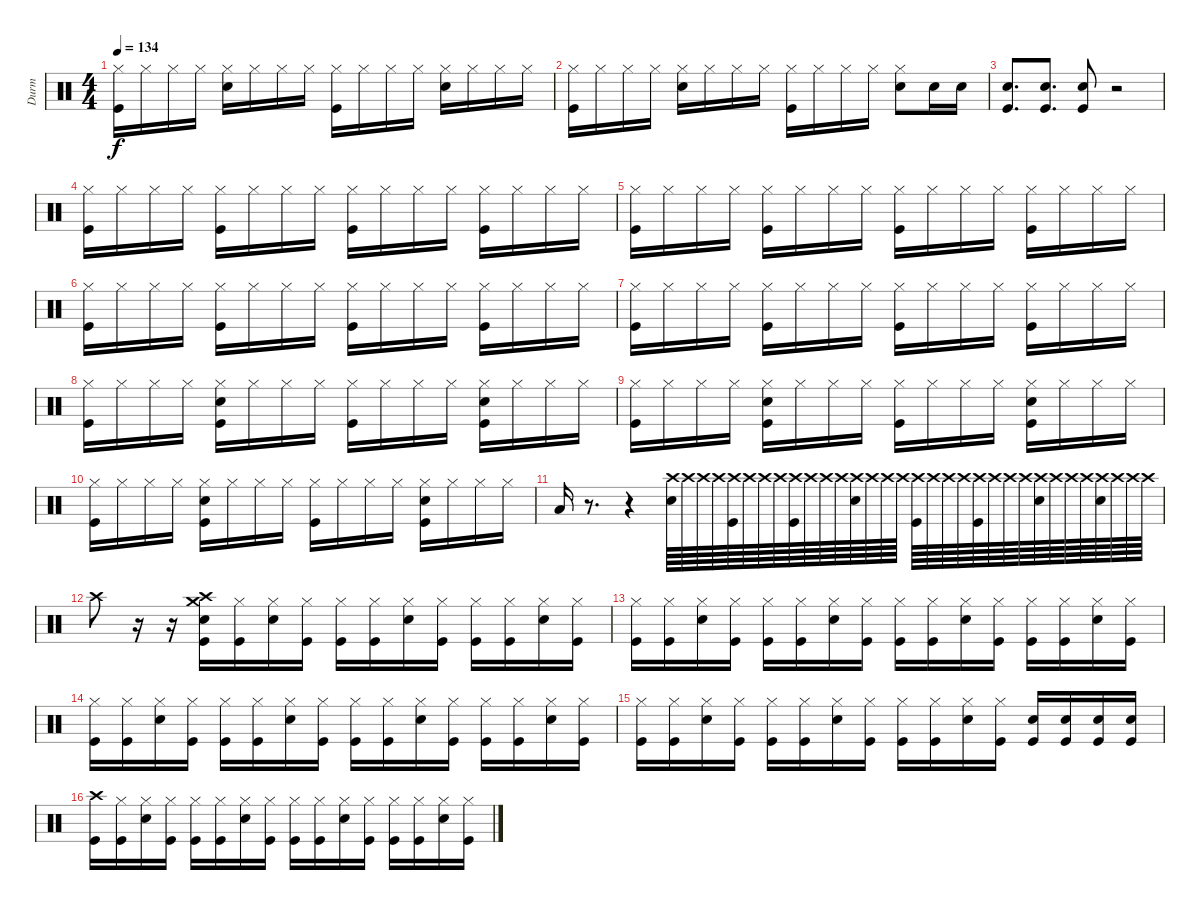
\track ("Durm" "Durm") {instrument percussion}
\staff {score}
\articulation defaults
\ts (4 4)
\tempo 134
\clef neutral
\ks c
("Hi-Hat (closed)" "Kick (hit)").16{dy f} "Hi-Hat (closed)".16 "Hi-Hat (closed)".16 "Hi-Hat (closed)".16 ("Hi-Hat (closed)" "Electric Snare (hit)").16 "Hi-Hat (closed)".16 "Hi-Hat (closed)".16 "Hi-Hat (closed)".16 ("Hi-Hat (closed)" "Kick (hit)").16 "Hi-Hat (closed)".16 "Hi-Hat (closed)".16 "Hi-Hat (closed)".16 ("Hi-Hat (closed)" "Electric Snare (hit)").16 "Hi-Hat (closed)".16 "Hi-Hat (closed)".16 "Hi-Hat (closed)".16 |
("Hi-Hat (closed)" "Kick (hit)").16 "Hi-Hat (closed)".16 "Hi-Hat (closed)".16 "Hi-Hat (closed)".16 ("Hi-Hat (closed)" "Electric Snare (hit)").16 "Hi-Hat (closed)".16 "Hi-Hat (closed)".16 "Hi-Hat (closed)".16 ("Hi-Hat (closed)" "Kick (hit)").16 "Hi-Hat (closed)".16 "Hi-Hat (closed)".16 "Hi-Hat (closed)".16 ("Hi-Hat (closed)" "Electric Snare (hit)").8 "Electric Snare (hit)".16 "Electric Snare (hit)".16 |
("Electric Snare (hit)" "Kick (hit)").8{d} ("Electric Snare (hit)" "Kick (hit)").8{d} ("Electric Snare (hit)" "Kick (hit)").8 r.2 |
("Hi-Hat (closed)" "Kick (hit)").16 "Hi-Hat (closed)".16 "Hi-Hat (closed)".16 "Hi-Hat (closed)".16 ("Hi-Hat (closed)" "Kick (hit)").16 "Hi-Hat (closed)".16 "Hi-Hat (closed)".16 "Hi-Hat (closed)".16 ("Hi-Hat (closed)" "Kick (hit)").16 "Hi-Hat (closed)".16 "Hi-Hat (closed)".16 "Hi-Hat (closed)".16 ("Hi-Hat (closed)" "Kick (hit)").16 "Hi-Hat (closed)".16 "Hi-Hat (closed)".16 "Hi-Hat (closed)".16 |
("Hi-Hat (closed)" "Kick (hit)").16 "Hi-Hat (closed)".16 "Hi-Hat (closed)".16 "Hi-Hat (closed)".16 ("Hi-Hat (closed)" "Kick (hit)").16 "Hi-Hat (closed)".16 "Hi-Hat (closed)".16 "Hi-Hat (closed)".16 ("Hi-Hat (closed)" "Kick (hit)").16 "Hi-Hat (closed)".16 "Hi-Hat (closed)".16 "Hi-Hat (closed)".16 ("Hi-Hat (closed)" "Kick (hit)").16 "Hi-Hat (closed)".16 "Hi-Hat (closed)".16 "Hi-Hat (closed)".16 |
("Hi-Hat (closed)" "Kick (hit)").16 "Hi-Hat (closed)".16 "Hi-Hat (closed)".16 "Hi-Hat (closed)".16 ("Hi-Hat (closed)" "Kick (hit)").16 "Hi-Hat (closed)".16 "Hi-Hat (closed)".16 "Hi-Hat (closed)".16 ("Hi-Hat (closed)" "Kick (hit)").16 "Hi-Hat (closed)".16 "Hi-Hat (closed)".16 "Hi-Hat (closed)".16 ("Hi-Hat (closed)" "Kick (hit)").16 "Hi-Hat (closed)".16 "Hi-Hat (closed)".16 "Hi-Hat (closed)".16 |
("Hi-Hat (closed)" "Kick (hit)").16 "Hi-Hat (closed)".16 "Hi-Hat (closed)".16 "Hi-Hat (closed)".16 ("Hi-Hat (closed)" "Kick (hit)").16 "Hi-Hat (closed)".16 "Hi-Hat (closed)".16 "Hi-Hat (closed)".16 ("Hi-Hat (closed)" "Kick (hit)").16 "Hi-Hat (closed)".16 "Hi-Hat (closed)".16 "Hi-Hat (closed)".16 ("Hi-Hat (closed)" "Kick (hit)").16 "Hi-Hat (closed)".16 "Hi-Hat (closed)".16 "Hi-Hat (closed)".16 |
("Hi-Hat (closed)" "Kick (hit)").16 "Hi-Hat (closed)".16 "Hi-Hat (closed)".16 "Hi-Hat (closed)".16 ("Hi-Hat (closed)" "Electric Snare (hit)" "Kick (hit)").16 "Hi-Hat (closed)".16 "Hi-Hat (closed)".16 "Hi-Hat (closed)".16 ("Hi-Hat (closed)" "Kick (hit)").16 "Hi-Hat (closed)".16 "Hi-Hat (closed)".16 "Hi-Hat (closed)".16 ("Hi-Hat (closed)" "Electric Snare (hit)" "Kick (hit)").16 "Hi-Hat (closed)".16 "Hi-Hat (closed)".16 "Hi-Hat (closed)".16 |
("Hi-Hat (closed)" "Kick (hit)").16 "Hi-Hat (closed)".16 "Hi-Hat (closed)".16 "Hi-Hat (closed)".16 ("Hi-Hat (closed)" "Electric Snare (hit)" "Kick (hit)").16 "Hi-Hat (closed)".16 "Hi-Hat (closed)".16 "Hi-Hat (closed)".16 ("Hi-Hat (closed)" "Kick (hit)").16 "Hi-Hat (closed)".16 "Hi-Hat (closed)".16 "Hi-Hat (closed)".16 ("Hi-Hat (closed)" "Electric Snare (hit)" "Kick (hit)").16 "Hi-Hat (closed)".16 "Hi-Hat (closed)".16 "Hi-Hat (closed)".16 |
("Hi-Hat (closed)" "Kick (hit)").16 "Hi-Hat (closed)".16 "Hi-Hat (closed)".16 "Hi-Hat (closed)".16 ("Hi-Hat (closed)" "Electric Snare (hit)" "Kick (hit)").16 "Hi-Hat (closed)".16 "Hi-Hat (closed)".16 "Hi-Hat (closed)".16 ("Hi-Hat (closed)" "Kick (hit)").16 "Hi-Hat (closed)".16 "Hi-Hat (closed)".16 "Hi-Hat (closed)".16 ("Hi-Hat (closed)" "Electric Snare (hit)" "Kick (hit)").16 "Hi-Hat (closed)".16 "Hi-Hat (closed)".16 "Hi-Hat (closed)".16 |
"Low Floor Tom (hit)".16 r.8{d} r.4 ("Crash high (hit)" "Electric Snare (hit)").64 "Crash high (hit)".64 "Crash high (hit)".64 "Crash high (hit)".64 ("Crash high (hit)" "Kick (hit)").64 "Crash high (hit)".64 "Crash high (hit)".64 "Crash high (hit)".64 ("Crash high (hit)" "Kick (hit)").64 "Crash high (hit)".64 "Crash high (hit)".64 "Crash high (hit)".64 ("Crash high (hit)" "Electric Snare (hit)").64 "Crash high (hit)".64 "Crash high (hit)".64 "Crash high (hit)".64 ("Crash high (hit)" "Kick (hit)").64 "Crash high (hit)".64 "Crash high (hit)".64 "Crash high (hit)".64 ("Crash high (hit)" "Kick (hit)").64 "Crash high (hit)".64 "Crash high (hit)".64 "Crash high (hit)".64 ("Crash high (hit)" "Electric Snare (hit)").64 "Crash high (hit)".64 "Crash high (hit)".64 "Crash high (hit)".64 ("Crash high (hit)" "Electric Snare (hit)").64 "Crash high (hit)".64 "Crash high (hit)".64 "Crash high (hit)".64 |
"Crash high (hit)".8 r.16 r.16 ("Crash medium (hit)" "Crash high (hit)" "Electric Snare (hit)" "Kick (hit)").16 ("Hi-Hat (closed)" "Kick (hit)").16 ("Hi-Hat (closed)" "Electric Snare (hit)").16 ("Hi-Hat (closed)" "Kick (hit)").16 ("Hi-Hat (closed)" "Kick (hit)").16 ("Hi-Hat (closed)" "Kick (hit)").16 ("Hi-Hat (closed)" "Electric Snare (hit)").16 ("Hi-Hat (closed)" "Kick (hit)").16 ("Hi-Hat (closed)" "Kick (hit)").16 ("Hi-Hat (closed)" "Kick (hit)").16 ("Hi-Hat (closed)" "Electric Snare (hit)").16 ("Hi-Hat (closed)" "Kick (hit)").16 |
("Hi-Hat (closed)" "Kick (hit)").16 ("Hi-Hat (closed)" "Kick (hit)").16 ("Hi-Hat (closed)" "Electric Snare (hit)").16 ("Hi-Hat (closed)" "Kick (hit)").16 ("Hi-Hat (closed)" "Kick (hit)").16 ("Hi-Hat (closed)" "Kick (hit)").16 ("Hi-Hat (closed)" "Electric Snare (hit)").16 ("Hi-Hat (closed)" "Kick (hit)").16 ("Hi-Hat (closed)" "Kick (hit)").16 ("Hi-Hat (closed)" "Kick (hit)").16 ("Hi-Hat (closed)" "Electric Snare (hit)").16 ("Hi-Hat (closed)" "Kick (hit)").16 ("Hi-Hat (closed)" "Kick (hit)").16 ("Hi-Hat (closed)" "Kick (hit)").16 ("Hi-Hat (closed)" "Electric Snare (hit)").16 ("Hi-Hat (closed)" "Kick (hit)").16 |
("Hi-Hat (closed)" "Kick (hit)").16 ("Hi-Hat (closed)" "Kick (hit)").16 ("Hi-Hat (closed)" "Electric Snare (hit)").16 ("Hi-Hat (closed)" "Kick (hit)").16 ("Hi-Hat (closed)" "Kick (hit)").16 ("Hi-Hat (closed)" "Kick (hit)").16 ("Hi-Hat (closed)" "Electric Snare (hit)").16 ("Hi-Hat (closed)" "Kick (hit)").16 ("Hi-Hat (closed)" "Kick (hit)").16 ("Hi-Hat (closed)" "Kick (hit)").16 ("Hi-Hat (closed)" "Electric Snare (hit)").16 ("Hi-Hat (closed)" "Kick (hit)").16 ("Hi-Hat (closed)" "Kick (hit)").16 ("Hi-Hat (closed)" "Kick (hit)").16 ("Hi-Hat (closed)" "Electric Snare (hit)").16 ("Hi-Hat (closed)" "Kick (hit)").16 |
("Hi-Hat (closed)" "Kick (hit)").16 ("Hi-Hat (closed)" "Kick (hit)").16 ("Hi-Hat (closed)" "Electric Snare (hit)").16 ("Hi-Hat (closed)" "Kick (hit)").16 ("Hi-Hat (closed)" "Kick (hit)").16 ("Hi-Hat (closed)" "Kick (hit)").16 ("Hi-Hat (closed)" "Electric Snare (hit)").16 ("Hi-Hat (closed)" "Kick (hit)").16 ("Hi-Hat (closed)" "Kick (hit)").16 ("Hi-Hat (closed)" "Kick (hit)").16 ("Hi-Hat (closed)" "Electric Snare (hit)").16 ("Hi-Hat (closed)" "Kick (hit)").16 ("Electric Snare (hit)" "Kick (hit)").16 ("Electric Snare (hit)" "Kick (hit)").16 ("Electric Snare (hit)" "Kick (hit)").16 ("Electric Snare (hit)" "Kick (hit)").16 |
("Crash high (hit)" "Kick (hit)").16 ("Hi-Hat (closed)" "Kick (hit)").16 ("Hi-Hat (closed)" "Electric Snare (hit)").16 ("Hi-Hat (closed)" "Kick (hit)").16 ("Hi-Hat (closed)" "Kick (hit)").16 ("Hi-Hat (closed)" "Kick (hit)").16 ("Hi-Hat (closed)" "Electric Snare (hit)").16 ("Hi-Hat (closed)" "Kick (hit)").16 ("Hi-Hat (closed)" "Kick (hit)").16 ("Hi-Hat (closed)" "Kick (hit)").16 ("Hi-Hat (closed)" "Electric Snare (hit)").16 ("Hi-Hat (closed)" "Kick (hit)").16 ("Hi-Hat (closed)" "Kick (hit)").16 ("Hi-Hat (closed)" "Kick (hit)").16 ("Hi-Hat (closed)" "Electric Snare (hit)").16 ("Hi-Hat (closed)" "Kick (hit)").16
